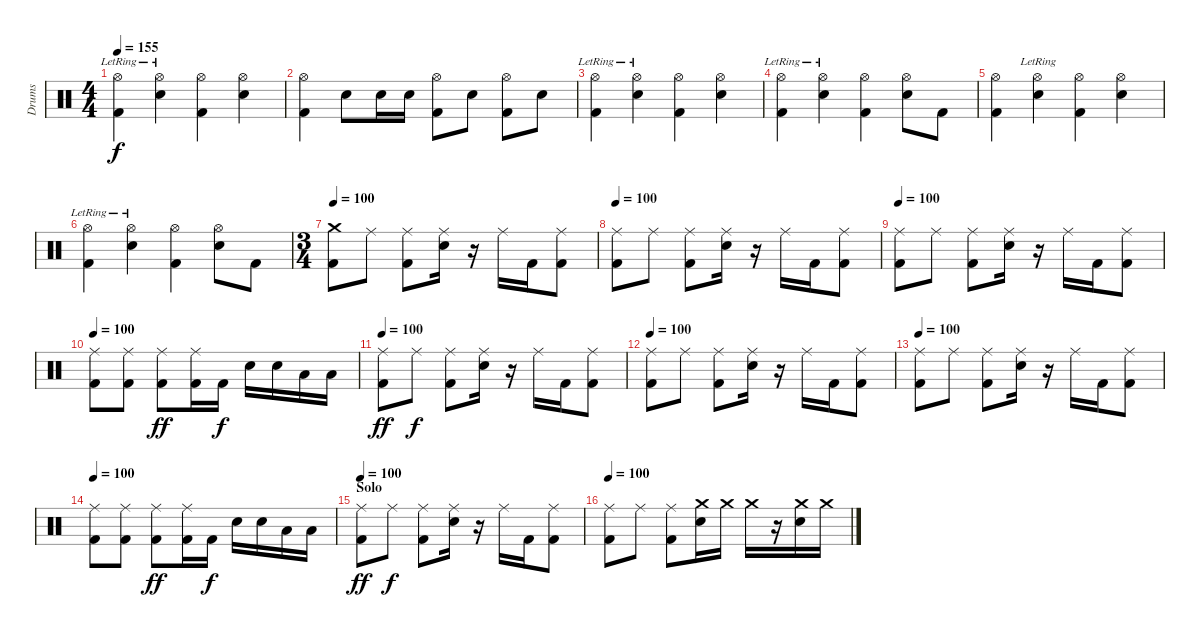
\track ("Drums" "Drums") {instrument percussion}
\staff {score}
\articulation defaults
\ts (4 4)
\tempo 155
\clef neutral
\ks c
("Hi-Hat (open)"{lr} "Kick (hit) 2").4{dy f} ("Hi-Hat (open)"{lr} "Electric Snare (hit)").4 ("Hi-Hat (open)" "Kick (hit) 2").4 ("Hi-Hat (open)" "Electric Snare (hit)").4 |
("Hi-Hat (open)" "Kick (hit) 2").4 "Electric Snare (hit)".8 "Electric Snare (hit)".16 "Electric Snare (hit)".16 ("Hi-Hat (open)" "Kick (hit) 2").8 "Electric Snare (hit)".8 ("Hi-Hat (open)" "Kick (hit) 2").8 "Electric Snare (hit)".8 |
("Hi-Hat (open)"{lr} "Kick (hit) 2").4 ("Hi-Hat (open)"{lr} "Electric Snare (hit)").4 ("Hi-Hat (open)" "Kick (hit) 2").4 ("Hi-Hat (open)" "Electric Snare (hit)").4 |
("Hi-Hat (open)"{lr} "Kick (hit) 2").4 ("Hi-Hat (open)"{lr} "Electric Snare (hit)").4 ("Hi-Hat (open)" "Kick (hit) 2").4 ("Hi-Hat (open)" "Electric Snare (hit)").8 "Kick (hit) 2".8 |
("Hi-Hat (open)" "Kick (hit) 2").4 ("Hi-Hat (open)"{lr} "Electric Snare (hit)").4 ("Hi-Hat (open)" "Kick (hit) 2").4 ("Hi-Hat (open)" "Electric Snare (hit)").4 |
("Hi-Hat (open)"{lr} "Kick (hit) 2").4 ("Hi-Hat (open)"{lr} "Electric Snare (hit)").4 ("Hi-Hat (open)" "Kick (hit) 2").4 ("Hi-Hat (open)" "Electric Snare (hit)").8 "Kick (hit) 2".8 |
\ts (3 4)
\tempo 100
("Crash medium (hit)" "Kick (hit) 2").8 "Ride (middle)".8 ("Ride (middle)" "Kick (hit) 2").8 ("Ride (middle)" "Electric Snare (hit)").16 r.16 "Ride (middle)".16 "Kick (hit) 2".16 ("Ride (middle)" "Kick (hit) 2").8 |
\tempo 100
("Ride (middle)" "Kick (hit) 2").8 "Ride (middle)".8 ("Ride (middle)" "Kick (hit) 2").8 ("Ride (middle)" "Electric Snare (hit)").16 r.16 "Ride (middle)".16 "Kick (hit) 2".16 ("Ride (middle)" "Kick (hit) 2").8 |
\tempo 100
("Ride (middle)" "Kick (hit) 2").8 "Ride (middle)".8 ("Ride (middle)" "Kick (hit) 2").8 ("Ride (middle)" "Electric Snare (hit)").16 r.16 "Ride (middle)".16 "Kick (hit) 2".16 ("Ride (middle)" "Kick (hit) 2").8 |
\tempo 100
("Ride (middle)" "Kick (hit) 2").8 ("Ride (middle)" "Kick (hit) 2").8 ("Ride (middle)" "Kick (hit) 2").8{dy ff} ("Ride (middle)" "Kick (hit) 2").16 "Kick (hit) 2".16{dy f} "Electric Snare (hit)".16 "Electric Snare (hit)".16 "Low Tom (hit)".16 "Low Tom (hit)".16 |
\tempo 100
("Ride (middle)" "Kick (hit) 2").8{dy ff} "Ride (middle)".8{dy f} ("Ride (middle)" "Kick (hit) 2").8 ("Ride (middle)" "Electric Snare (hit)").16 r.16 "Ride (middle)".16 "Kick (hit) 2".16 ("Ride (middle)" "Kick (hit) 2").8 |
\tempo 100
("Ride (middle)" "Kick (hit) 2").8 "Ride (middle)".8 ("Ride (middle)" "Kick (hit) 2").8 ("Ride (middle)" "Electric Snare (hit)").16 r.16 "Ride (middle)".16 "Kick (hit) 2".16 ("Ride (middle)" "Kick (hit) 2").8 |
\tempo 100
("Ride (middle)" "Kick (hit) 2").8 "Ride (middle)".8 ("Ride (middle)" "Kick (hit) 2").8 ("Ride (middle)" "Electric Snare (hit)").16 r.16 "Ride (middle)".16 "Kick (hit) 2".16 ("Ride (middle)" "Kick (hit) 2").8 |
\tempo 100
("Ride (middle)" "Kick (hit) 2").8 ("Ride (middle)" "Kick (hit) 2").8 ("Ride (middle)" "Kick (hit) 2").8{dy ff} ("Ride (middle)" "Kick (hit) 2").16 "Kick (hit) 2".16{dy f} "Electric Snare (hit)".16 "Electric Snare (hit)".16 "Low Tom (hit)".16 "Low Tom (hit)".16 |
\section ("" "Solo")
\tempo 100
("Ride (middle)" "Kick (hit) 2").8{dy ff} "Ride (middle)".8{dy f} ("Ride (middle)" "Kick (hit) 2").8 ("Ride (middle)" "Electric Snare (hit)").16 r.16 "Ride (middle)".16 "Kick (hit) 2".16 ("Ride (middle)" "Kick (hit) 2").8 |
\tempo 100
("Ride (middle)" "Kick (hit) 2").8 "Ride (middle)".8 ("Ride (middle)" "Kick (hit) 2").8 ("Crash medium (hit)" "Electric Snare (hit)").16 "Crash medium (hit)".16 "Crash medium (hit)".16 r.16 ("Crash medium (hit)" "Electric Snare (hit)").16 "Crash medium (hit)".16
